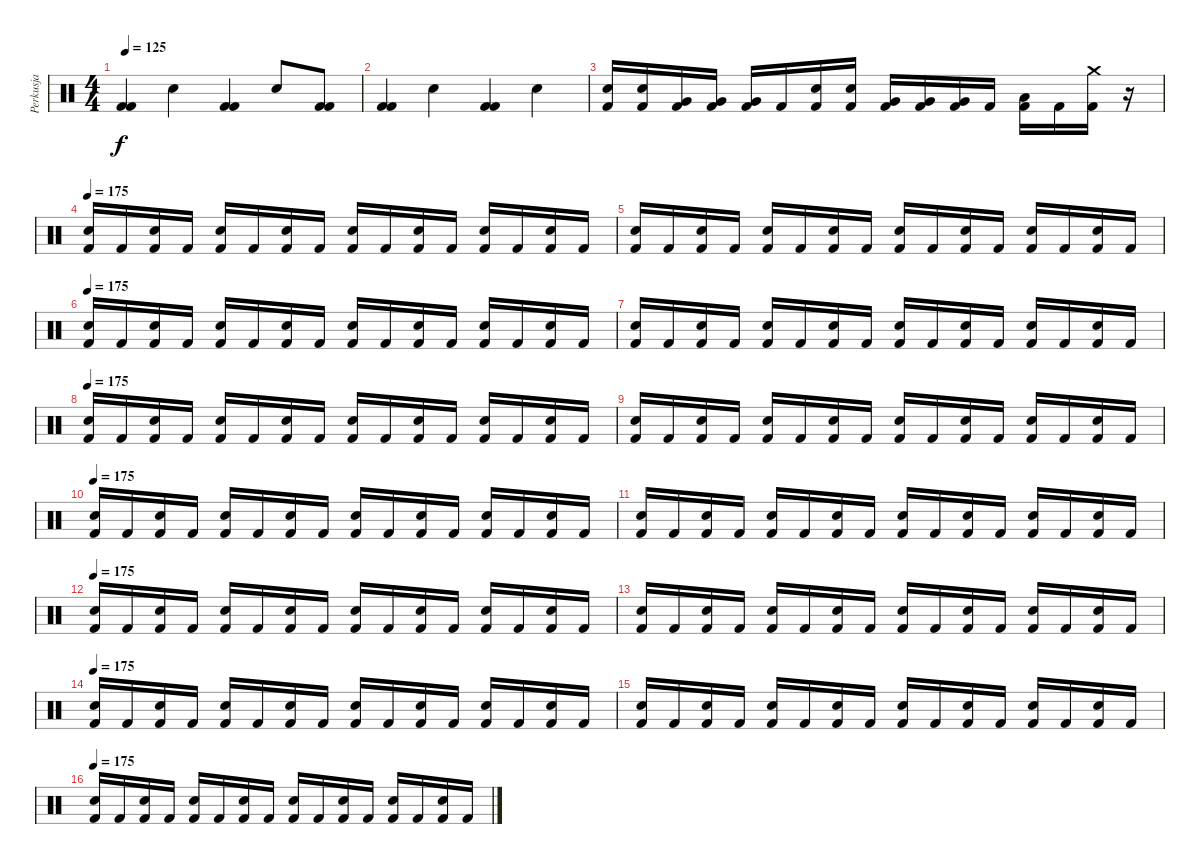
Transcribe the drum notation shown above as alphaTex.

\track ("Perkusja" "Perkusja") {instrument percussion}
\staff {score}
\articulation defaults
\ts (4 4)
\tempo 125
\clef neutral
\ks c
("Kick (hit) 2" "Kick (hit) 2").4{dy f} "Snare (hit) 2".4 ("Kick (hit) 2" "Kick (hit) 2").4 "Snare (hit) 2".8 ("Kick (hit) 2" "Kick (hit) 2").8 |
("Kick (hit) 2" "Kick (hit) 2").4 "Snare (hit) 2".4 ("Kick (hit) 2" "Kick (hit) 2").4 "Snare (hit) 2".4 |
("Electric Snare (hit)" "Kick (hit) 2").16 ("Snare (hit) 2" "Kick (hit) 2").16 ("Very Low Tom (hit)" "Kick (hit) 2").16 ("Very Low Tom (hit)" "Kick (hit) 2").16 ("Very Low Tom (hit)" "Kick (hit) 2").16 "Kick (hit) 2".16 ("Electric Snare (hit)" "Kick (hit) 2").16 ("Snare (hit) 2" "Kick (hit) 2").16 ("Very Low Tom (hit)" "Kick (hit) 2").16 ("Very Low Tom (hit)" "Kick (hit) 2").16 ("Very Low Tom (hit)" "Kick (hit) 2").16 "Kick (hit) 2".16 ("Low Tom (hit)" "Kick (hit) 2").16 "Kick (hit) 2".16 ("Crash medium (hit)" "Kick (hit) 2").16 r.16 |
\tempo 175
("Electric Snare (hit)" "Kick (hit) 2").16 "Kick (hit) 2".16 ("Snare (hit) 2" "Kick (hit) 2").16 "Kick (hit) 2".16 ("Snare (hit) 2" "Kick (hit) 2").16 "Kick (hit) 2".16 ("Snare (hit) 2" "Kick (hit) 2").16 "Kick (hit) 2".16 ("Snare (hit) 2" "Kick (hit) 2").16 "Kick (hit) 2".16 ("Snare (hit) 2" "Kick (hit) 2").16 "Kick (hit) 2".16 ("Snare (hit) 2" "Kick (hit) 2").16 "Kick (hit) 2".16 ("Snare (hit) 2" "Kick (hit) 2").16 "Kick (hit) 2".16 |
("Electric Snare (hit)" "Kick (hit) 2").16 "Kick (hit) 2".16 ("Snare (hit) 2" "Kick (hit) 2").16 "Kick (hit) 2".16 ("Snare (hit) 2" "Kick (hit) 2").16 "Kick (hit) 2".16 ("Snare (hit) 2" "Kick (hit) 2").16 "Kick (hit) 2".16 ("Snare (hit) 2" "Kick (hit) 2").16 "Kick (hit) 2".16 ("Snare (hit) 2" "Kick (hit) 2").16 "Kick (hit) 2".16 ("Snare (hit) 2" "Kick (hit) 2").16 "Kick (hit) 2".16 ("Snare (hit) 2" "Kick (hit) 2").16 "Kick (hit) 2".16 |
\tempo 175
("Electric Snare (hit)" "Kick (hit) 2").16 "Kick (hit) 2".16 ("Snare (hit) 2" "Kick (hit) 2").16 "Kick (hit) 2".16 ("Snare (hit) 2" "Kick (hit) 2").16 "Kick (hit) 2".16 ("Snare (hit) 2" "Kick (hit) 2").16 "Kick (hit) 2".16 ("Snare (hit) 2" "Kick (hit) 2").16 "Kick (hit) 2".16 ("Snare (hit) 2" "Kick (hit) 2").16 "Kick (hit) 2".16 ("Snare (hit) 2" "Kick (hit) 2").16 "Kick (hit) 2".16 ("Snare (hit) 2" "Kick (hit) 2").16 "Kick (hit) 2".16 |
("Snare (hit) 2" "Kick (hit) 2").16 "Kick (hit) 2".16 ("Snare (hit) 2" "Kick (hit) 2").16 "Kick (hit) 2".16 ("Snare (hit) 2" "Kick (hit) 2").16 "Kick (hit) 2".16 ("Snare (hit) 2" "Kick (hit) 2").16 "Kick (hit) 2".16 ("Snare (hit) 2" "Kick (hit) 2").16 "Kick (hit) 2".16 ("Snare (hit) 2" "Kick (hit) 2").16 "Kick (hit) 2".16 ("Snare (hit) 2" "Kick (hit) 2").16 "Kick (hit) 2".16 ("Snare (hit) 2" "Kick (hit) 2").16 "Kick (hit) 2".16 |
\tempo 175
("Electric Snare (hit)" "Kick (hit) 2").16 "Kick (hit) 2".16 ("Snare (hit) 2" "Kick (hit) 2").16 "Kick (hit) 2".16 ("Snare (hit) 2" "Kick (hit) 2").16 "Kick (hit) 2".16 ("Snare (hit) 2" "Kick (hit) 2").16 "Kick (hit) 2".16 ("Snare (hit) 2" "Kick (hit) 2").16 "Kick (hit) 2".16 ("Snare (hit) 2" "Kick (hit) 2").16 "Kick (hit) 2".16 ("Snare (hit) 2" "Kick (hit) 2").16 "Kick (hit) 2".16 ("Snare (hit) 2" "Kick (hit) 2").16 "Kick (hit) 2".16 |
("Electric Snare (hit)" "Kick (hit) 2").16 "Kick (hit) 2".16 ("Snare (hit) 2" "Kick (hit) 2").16 "Kick (hit) 2".16 ("Snare (hit) 2" "Kick (hit) 2").16 "Kick (hit) 2".16 ("Snare (hit) 2" "Kick (hit) 2").16 "Kick (hit) 2".16 ("Snare (hit) 2" "Kick (hit) 2").16 "Kick (hit) 2".16 ("Snare (hit) 2" "Kick (hit) 2").16 "Kick (hit) 2".16 ("Snare (hit) 2" "Kick (hit) 2").16 "Kick (hit) 2".16 ("Snare (hit) 2" "Kick (hit) 2").16 "Kick (hit) 2".16 |
\tempo 175
("Electric Snare (hit)" "Kick (hit) 2").16 "Kick (hit) 2".16 ("Snare (hit) 2" "Kick (hit) 2").16 "Kick (hit) 2".16 ("Snare (hit) 2" "Kick (hit) 2").16 "Kick (hit) 2".16 ("Snare (hit) 2" "Kick (hit) 2").16 "Kick (hit) 2".16 ("Snare (hit) 2" "Kick (hit) 2").16 "Kick (hit) 2".16 ("Snare (hit) 2" "Kick (hit) 2").16 "Kick (hit) 2".16 ("Snare (hit) 2" "Kick (hit) 2").16 "Kick (hit) 2".16 ("Snare (hit) 2" "Kick (hit) 2").16 "Kick (hit) 2".16 |
("Snare (hit) 2" "Kick (hit) 2").16 "Kick (hit) 2".16 ("Snare (hit) 2" "Kick (hit) 2").16 "Kick (hit) 2".16 ("Snare (hit) 2" "Kick (hit) 2").16 "Kick (hit) 2".16 ("Snare (hit) 2" "Kick (hit) 2").16 "Kick (hit) 2".16 ("Snare (hit) 2" "Kick (hit) 2").16 "Kick (hit) 2".16 ("Snare (hit) 2" "Kick (hit) 2").16 "Kick (hit) 2".16 ("Snare (hit) 2" "Kick (hit) 2").16 "Kick (hit) 2".16 ("Snare (hit) 2" "Kick (hit) 2").16 "Kick (hit) 2".16 |
\tempo 175
("Electric Snare (hit)" "Kick (hit) 2").16 "Kick (hit) 2".16 ("Snare (hit) 2" "Kick (hit) 2").16 "Kick (hit) 2".16 ("Snare (hit) 2" "Kick (hit) 2").16 "Kick (hit) 2".16 ("Snare (hit) 2" "Kick (hit) 2").16 "Kick (hit) 2".16 ("Snare (hit) 2" "Kick (hit) 2").16 "Kick (hit) 2".16 ("Snare (hit) 2" "Kick (hit) 2").16 "Kick (hit) 2".16 ("Snare (hit) 2" "Kick (hit) 2").16 "Kick (hit) 2".16 ("Snare (hit) 2" "Kick (hit) 2").16 "Kick (hit) 2".16 |
("Electric Snare (hit)" "Kick (hit) 2").16 "Kick (hit) 2".16 ("Snare (hit) 2" "Kick (hit) 2").16 "Kick (hit) 2".16 ("Snare (hit) 2" "Kick (hit) 2").16 "Kick (hit) 2".16 ("Snare (hit) 2" "Kick (hit) 2").16 "Kick (hit) 2".16 ("Snare (hit) 2" "Kick (hit) 2").16 "Kick (hit) 2".16 ("Snare (hit) 2" "Kick (hit) 2").16 "Kick (hit) 2".16 ("Snare (hit) 2" "Kick (hit) 2").16 "Kick (hit) 2".16 ("Snare (hit) 2" "Kick (hit) 2").16 "Kick (hit) 2".16 |
\tempo 175
("Electric Snare (hit)" "Kick (hit) 2").16 "Kick (hit) 2".16 ("Snare (hit) 2" "Kick (hit) 2").16 "Kick (hit) 2".16 ("Snare (hit) 2" "Kick (hit) 2").16 "Kick (hit) 2".16 ("Snare (hit) 2" "Kick (hit) 2").16 "Kick (hit) 2".16 ("Snare (hit) 2" "Kick (hit) 2").16 "Kick (hit) 2".16 ("Snare (hit) 2" "Kick (hit) 2").16 "Kick (hit) 2".16 ("Snare (hit) 2" "Kick (hit) 2").16 "Kick (hit) 2".16 ("Snare (hit) 2" "Kick (hit) 2").16 "Kick (hit) 2".16 |
("Snare (hit) 2" "Kick (hit) 2").16 "Kick (hit) 2".16 ("Snare (hit) 2" "Kick (hit) 2").16 "Kick (hit) 2".16 ("Snare (hit) 2" "Kick (hit) 2").16 "Kick (hit) 2".16 ("Snare (hit) 2" "Kick (hit) 2").16 "Kick (hit) 2".16 ("Snare (hit) 2" "Kick (hit) 2").16 "Kick (hit) 2".16 ("Snare (hit) 2" "Kick (hit) 2").16 "Kick (hit) 2".16 ("Snare (hit) 2" "Kick (hit) 2").16 "Kick (hit) 2".16 ("Snare (hit) 2" "Kick (hit) 2").16 "Kick (hit) 2".16 |
\tempo 175
("Electric Snare (hit)" "Kick (hit) 2").16 "Kick (hit) 2".16 ("Snare (hit) 2" "Kick (hit) 2").16 "Kick (hit) 2".16 ("Snare (hit) 2" "Kick (hit) 2").16 "Kick (hit) 2".16 ("Snare (hit) 2" "Kick (hit) 2").16 "Kick (hit) 2".16 ("Snare (hit) 2" "Kick (hit) 2").16 "Kick (hit) 2".16 ("Snare (hit) 2" "Kick (hit) 2").16 "Kick (hit) 2".16 ("Snare (hit) 2" "Kick (hit) 2").16 "Kick (hit) 2".16 ("Snare (hit) 2" "Kick (hit) 2").16 "Kick (hit) 2".16
